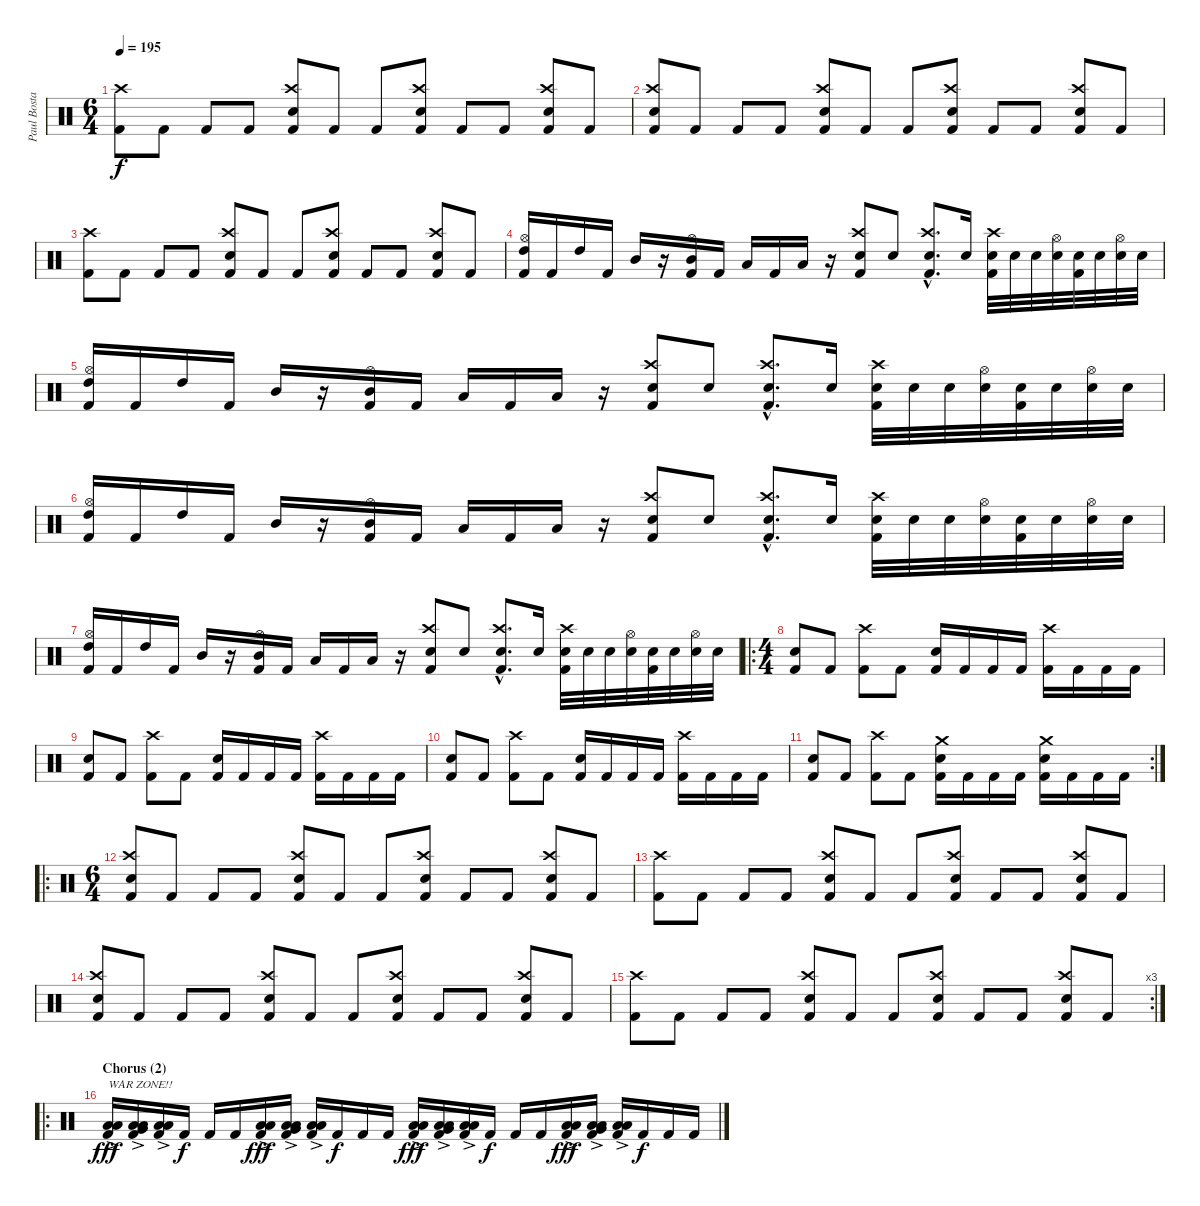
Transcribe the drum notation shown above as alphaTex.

\track ("Paul Bostaph" "Paul Bosta") {instrument percussion}
\staff {score}
\articulation defaults
\ts (6 4)
\tempo 195
\clef neutral
\ks c
("Kick (hit) 2" "Crash high (hit)").8{dy f} "Kick (hit) 2".8 "Kick (hit) 2".8 "Kick (hit) 2".8 ("Kick (hit) 2" "Crash high (hit)" "Snare (hit) 2").8 "Kick (hit) 2".8 "Kick (hit) 2".8 ("Kick (hit) 2" "Crash high (hit)" "Snare (hit) 2").8 "Kick (hit) 2".8 "Kick (hit) 2".8 ("Kick (hit) 2" "Crash high (hit)" "Snare (hit) 2").8 "Kick (hit) 2".8 |
("Kick (hit) 2" "Crash high (hit)" "Snare (hit) 2").8 "Kick (hit) 2".8 "Kick (hit) 2".8 "Kick (hit) 2".8 ("Kick (hit) 2" "Crash high (hit)" "Snare (hit) 2").8 "Kick (hit) 2".8 "Kick (hit) 2".8 ("Kick (hit) 2" "Crash high (hit)" "Snare (hit) 2").8 "Kick (hit) 2".8 "Kick (hit) 2".8 ("Kick (hit) 2" "Crash high (hit)" "Snare (hit) 2").8 "Kick (hit) 2".8 |
("Kick (hit) 2" "Crash high (hit)").8 "Kick (hit) 2".8 "Kick (hit) 2".8 "Kick (hit) 2".8 ("Kick (hit) 2" "Crash high (hit)" "Snare (hit) 2").8 "Kick (hit) 2".8 "Kick (hit) 2".8 ("Kick (hit) 2" "Crash high (hit)" "Snare (hit) 2").8 "Kick (hit) 2".8 "Kick (hit) 2".8 ("Kick (hit) 2" "Crash high (hit)" "Snare (hit) 2").8 "Kick (hit) 2".8 |
("Kick (hit) 2" "Hi-Hat (open)" "High Tom (hit)").16 "Kick (hit) 2".16 "High Tom (hit)".16 "Kick (hit) 2".16 "Mid Tom (hit)".16 r.16 ("Kick (hit) 2" "Hi-Hat (open)" "Mid Tom (hit)").16 "Kick (hit) 2".16 "Low Tom (hit)".16 "Kick (hit) 2".16 "Low Tom (hit)".16 r.16 ("Kick (hit) 2" "Crash high (hit)" "Snare (hit) 2").8 "Snare (hit) 2".8 ("Kick (hit) 2"{hac} "Crash high (hit)"{hac} "Snare (hit) 2"{hac}).8{d} "Snare (hit) 2".16 ("Kick (hit) 2" "Crash high (hit)" "Snare (hit) 2").32 "Snare (hit) 2".32 "Snare (hit) 2".32 ("Hi-Hat (open)" "Snare (hit) 2").32 ("Kick (hit) 2" "Snare (hit) 2").32 "Snare (hit) 2".32 ("Hi-Hat (open)" "Snare (hit) 2").32 "Snare (hit) 2".32 |
("Kick (hit) 2" "Hi-Hat (open)" "High Tom (hit)").16 "Kick (hit) 2".16 "High Tom (hit)".16 "Kick (hit) 2".16 "Mid Tom (hit)".16 r.16 ("Kick (hit) 2" "Hi-Hat (open)" "Mid Tom (hit)").16 "Kick (hit) 2".16 "Low Tom (hit)".16 "Kick (hit) 2".16 "Low Tom (hit)".16 r.16 ("Kick (hit) 2" "Crash high (hit)" "Snare (hit) 2").8 "Snare (hit) 2".8 ("Kick (hit) 2"{hac} "Crash high (hit)"{hac} "Snare (hit) 2"{hac}).8{d} "Snare (hit) 2".16 ("Kick (hit) 2" "Crash high (hit)" "Snare (hit) 2").32 "Snare (hit) 2".32 "Snare (hit) 2".32 ("Hi-Hat (open)" "Snare (hit) 2").32 ("Kick (hit) 2" "Snare (hit) 2").32 "Snare (hit) 2".32 ("Hi-Hat (open)" "Snare (hit) 2").32 "Snare (hit) 2".32 |
("Kick (hit) 2" "Hi-Hat (open)" "High Tom (hit)").16 "Kick (hit) 2".16 "High Tom (hit)".16 "Kick (hit) 2".16 "Mid Tom (hit)".16 r.16 ("Kick (hit) 2" "Hi-Hat (open)" "Mid Tom (hit)").16 "Kick (hit) 2".16 "Low Tom (hit)".16 "Kick (hit) 2".16 "Low Tom (hit)".16 r.16 ("Kick (hit) 2" "Crash high (hit)" "Snare (hit) 2").8 "Snare (hit) 2".8 ("Kick (hit) 2"{hac} "Crash high (hit)"{hac} "Snare (hit) 2"{hac}).8{d} "Snare (hit) 2".16 ("Kick (hit) 2" "Crash high (hit)" "Snare (hit) 2").32 "Snare (hit) 2".32 "Snare (hit) 2".32 ("Hi-Hat (open)" "Snare (hit) 2").32 ("Kick (hit) 2" "Snare (hit) 2").32 "Snare (hit) 2".32 ("Hi-Hat (open)" "Snare (hit) 2").32 "Snare (hit) 2".32 |
("Kick (hit) 2" "Hi-Hat (open)" "High Tom (hit)").16 "Kick (hit) 2".16 "High Tom (hit)".16 "Kick (hit) 2".16 "Mid Tom (hit)".16 r.16 ("Kick (hit) 2" "Hi-Hat (open)" "Mid Tom (hit)").16 "Kick (hit) 2".16 "Low Tom (hit)".16 "Kick (hit) 2".16 "Low Tom (hit)".16 r.16 ("Kick (hit) 2" "Crash high (hit)" "Snare (hit) 2").8 "Snare (hit) 2".8 ("Kick (hit) 2"{hac} "Crash high (hit)"{hac} "Snare (hit) 2"{hac}).8{d} "Snare (hit) 2".16 ("Kick (hit) 2" "Crash high (hit)" "Snare (hit) 2").32 "Snare (hit) 2".32 "Snare (hit) 2".32 ("Hi-Hat (open)" "Snare (hit) 2").32 ("Kick (hit) 2" "Snare (hit) 2").32 "Snare (hit) 2".32 ("Hi-Hat (open)" "Snare (hit) 2").32 "Snare (hit) 2".32 |
\ro
\ts (4 4)
("Kick (hit) 2" "Snare (hit) 2").8 "Kick (hit) 2".8 ("Kick (hit) 2" "Crash high (hit)").8 "Kick (hit) 2".8 ("Kick (hit) 2" "Snare (hit) 2").16 "Kick (hit) 2".16 "Kick (hit) 2".16 "Kick (hit) 2".16 ("Kick (hit) 2" "Crash high (hit)").16 "Kick (hit) 2".16 "Kick (hit) 2".16 "Kick (hit) 2".16 |
("Kick (hit) 2" "Snare (hit) 2").8 "Kick (hit) 2".8 ("Kick (hit) 2" "Crash high (hit)").8 "Kick (hit) 2".8 ("Kick (hit) 2" "Snare (hit) 2").16 "Kick (hit) 2".16 "Kick (hit) 2".16 "Kick (hit) 2".16 ("Kick (hit) 2" "Crash high (hit)").16 "Kick (hit) 2".16 "Kick (hit) 2".16 "Kick (hit) 2".16 |
("Kick (hit) 2" "Snare (hit) 2").8 "Kick (hit) 2".8 ("Kick (hit) 2" "Crash high (hit)").8 "Kick (hit) 2".8 ("Kick (hit) 2" "Snare (hit) 2").16 "Kick (hit) 2".16 "Kick (hit) 2".16 "Kick (hit) 2".16 ("Kick (hit) 2" "Crash high (hit)").16 "Kick (hit) 2".16 "Kick (hit) 2".16 "Kick (hit) 2".16 |
\rc 2
("Kick (hit) 2" "Snare (hit) 2").8 "Kick (hit) 2".8 ("Kick (hit) 2" "Crash high (hit)").8 "Kick (hit) 2".8 ("Kick (hit) 2" "Crash medium (hit)" "Snare (hit) 2").16 "Kick (hit) 2".16 "Kick (hit) 2".16 "Kick (hit) 2".16 ("Kick (hit) 2" "Crash medium (hit)" "Snare (hit) 2").16 "Kick (hit) 2".16 "Kick (hit) 2".16 "Kick (hit) 2".16 |
\ro
\ts (6 4)
("Kick (hit) 2" "Crash high (hit)" "Snare (hit) 2").8 "Kick (hit) 2".8 "Kick (hit) 2".8 "Kick (hit) 2".8 ("Kick (hit) 2" "Crash high (hit)" "Snare (hit) 2").8 "Kick (hit) 2".8 "Kick (hit) 2".8 ("Kick (hit) 2" "Crash high (hit)" "Snare (hit) 2").8 "Kick (hit) 2".8 "Kick (hit) 2".8 ("Kick (hit) 2" "Crash high (hit)" "Snare (hit) 2").8 "Kick (hit) 2".8 |
("Kick (hit) 2" "Crash high (hit)").8 "Kick (hit) 2".8 "Kick (hit) 2".8 "Kick (hit) 2".8 ("Kick (hit) 2" "Crash high (hit)" "Snare (hit) 2").8 "Kick (hit) 2".8 "Kick (hit) 2".8 ("Kick (hit) 2" "Crash high (hit)" "Snare (hit) 2").8 "Kick (hit) 2".8 "Kick (hit) 2".8 ("Kick (hit) 2" "Crash high (hit)" "Snare (hit) 2").8 "Kick (hit) 2".8 |
("Kick (hit) 2" "Crash high (hit)" "Snare (hit) 2").8 "Kick (hit) 2".8 "Kick (hit) 2".8 "Kick (hit) 2".8 ("Kick (hit) 2" "Crash high (hit)" "Snare (hit) 2").8 "Kick (hit) 2".8 "Kick (hit) 2".8 ("Kick (hit) 2" "Crash high (hit)" "Snare (hit) 2").8 "Kick (hit) 2".8 "Kick (hit) 2".8 ("Kick (hit) 2" "Crash high (hit)" "Snare (hit) 2").8 "Kick (hit) 2".8 |
\rc 3
("Kick (hit) 2" "Crash high (hit)").8 "Kick (hit) 2".8 "Kick (hit) 2".8 "Kick (hit) 2".8 ("Kick (hit) 2" "Crash high (hit)" "Snare (hit) 2").8 "Kick (hit) 2".8 "Kick (hit) 2".8 ("Kick (hit) 2" "Crash high (hit)" "Snare (hit) 2").8 "Kick (hit) 2".8 "Kick (hit) 2".8 ("Kick (hit) 2" "Crash high (hit)" "Snare (hit) 2").8 "Kick (hit) 2".8 |
\ro
\section ("" "Chorus (2)")
("Kick (hit) 2" "Low Floor Tom (hit)"{ac} "Low Floor Tom (hit)"{ac}).16{txt "WAR ZONE!!" dy fff} ("Kick (hit) 2" "Very Low Tom (hit)" "Low Floor Tom (hit)"{ac} "Low Floor Tom (hit)"{ac}).16 ("Kick (hit) 2" "Low Floor Tom (hit)"{ac} "Low Floor Tom (hit)"{ac}).16 "Kick (hit) 2".16{dy f} "Kick (hit) 2".16 "Kick (hit) 2".16 ("Kick (hit) 2" "Low Floor Tom (hit)"{ac} "Low Floor Tom (hit)"{ac}).16{dy fff} ("Kick (hit) 2" "Very Low Tom (hit)" "Low Floor Tom (hit)"{ac} "Low Floor Tom (hit)"{ac}).16 ("Kick (hit) 2" "Low Floor Tom (hit)"{ac} "Low Floor Tom (hit)"{ac}).16 "Kick (hit) 2".16{dy f} "Kick (hit) 2".16 "Kick (hit) 2".16 ("Kick (hit) 2" "Low Floor Tom (hit)"{ac} "Low Floor Tom (hit)"{ac}).16{dy fff} ("Kick (hit) 2" "Very Low Tom (hit)" "Low Floor Tom (hit)"{ac} "Low Floor Tom (hit)"{ac}).16 ("Kick (hit) 2" "Low Floor Tom (hit)"{ac} "Low Floor Tom (hit)"{ac}).16 "Kick (hit) 2".16{dy f} "Kick (hit) 2".16 "Kick (hit) 2".16 ("Kick (hit) 2" "Low Floor Tom (hit)"{ac} "Low Floor Tom (hit)"{ac}).16{dy fff} ("Kick (hit) 2" "Very Low Tom (hit)" "Low Floor Tom (hit)"{ac} "Low Floor Tom (hit)"{ac}).16 ("Kick (hit) 2" "Low Floor Tom (hit)"{ac} "Low Floor Tom (hit)"{ac}).16 "Kick (hit) 2".16{dy f} "Kick (hit) 2".16 "Kick (hit) 2".16
